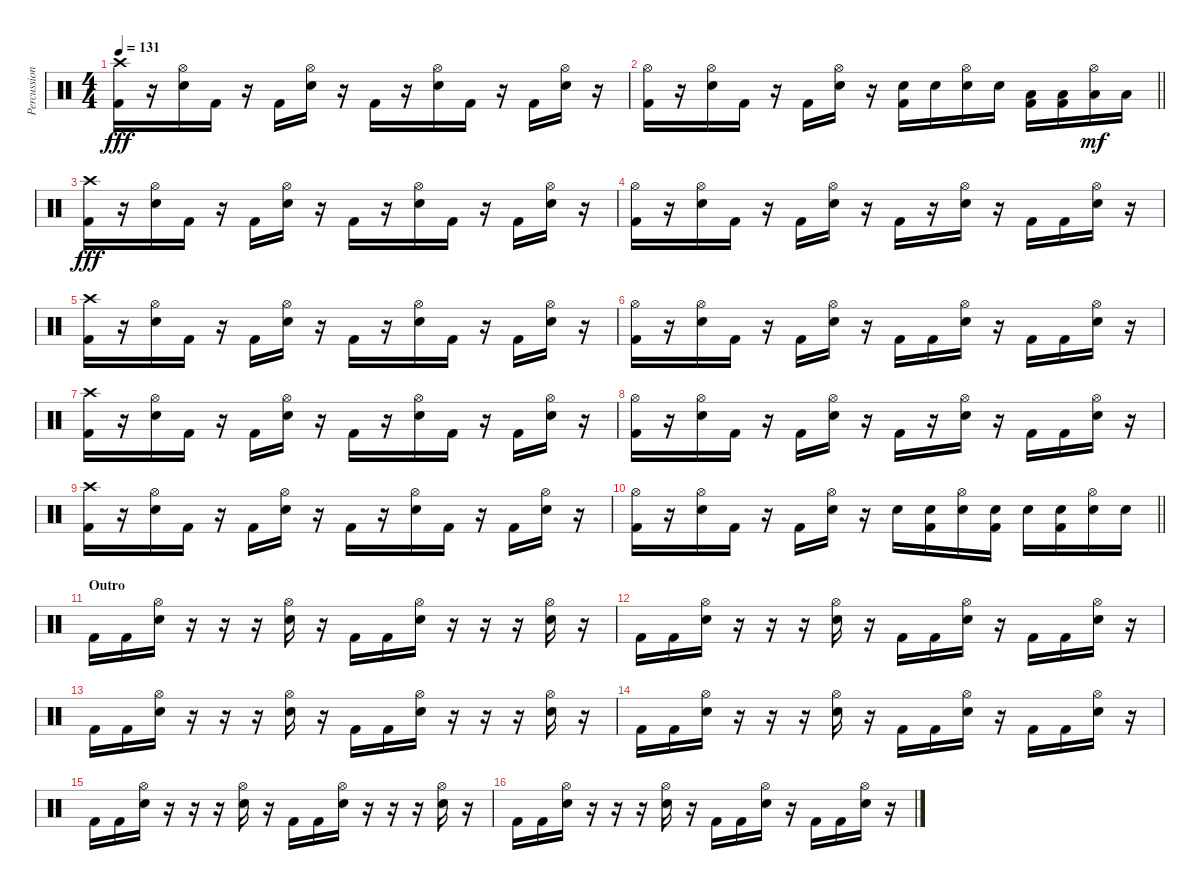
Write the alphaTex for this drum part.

\track ("Percussion" "Percussion") {instrument percussion}
\staff {score}
\articulation defaults
\ts (4 4)
\tempo 131
\clef neutral
\ks c
("Crash high (hit)" "Kick (hit) 2").16{dy fff} r.16 ("Hi-Hat (open)" "Snare (hit) 2").16 "Kick (hit) 2".16 r.16 "Kick (hit) 2".16 ("Hi-Hat (open)" "Snare (hit) 2").16 r.16 "Kick (hit) 2".16 r.16 ("Hi-Hat (open)" "Snare (hit) 2").16 "Kick (hit) 2".16 r.16 "Kick (hit) 2".16 ("Hi-Hat (open)" "Snare (hit) 2").16 r.16 |
\barLineRight lightlight
("Hi-Hat (open)" "Kick (hit) 2").16 r.16 ("Hi-Hat (open)" "Snare (hit) 2").16 "Kick (hit) 2".16 r.16 "Kick (hit) 2".16 ("Hi-Hat (open)" "Snare (hit) 2").16 r.16 ("Snare (hit) 2" "Kick (hit) 2").16 "Snare (hit) 2".16 ("Hi-Hat (open)" "Snare (hit) 2").16 "Snare (hit) 2".16 ("Low Tom (hit)" "Kick (hit) 2").16 ("Low Tom (hit)" "Kick (hit) 2").16 ("Hi-Hat (open)" "Low Tom (hit)").16{dy mf} "Low Tom (hit)".16 |
("Crash high (hit)" "Kick (hit) 2").16{dy fff} r.16 ("Hi-Hat (open)" "Snare (hit) 2").16 "Kick (hit) 2".16 r.16 "Kick (hit) 2".16 ("Hi-Hat (open)" "Snare (hit) 2").16 r.16 "Kick (hit) 2".16 r.16 ("Hi-Hat (open)" "Snare (hit) 2").16 "Kick (hit) 2".16 r.16 "Kick (hit) 2".16 ("Hi-Hat (open)" "Snare (hit) 2").16 r.16 |
("Hi-Hat (open)" "Kick (hit) 2").16 r.16 ("Hi-Hat (open)" "Snare (hit) 2").16 "Kick (hit) 2".16 r.16 "Kick (hit) 2".16 ("Hi-Hat (open)" "Snare (hit) 2").16 r.16 "Kick (hit) 2".16 r.16 ("Hi-Hat (open)" "Snare (hit) 2").16 r.16 "Kick (hit) 2".16 "Kick (hit) 2".16 ("Hi-Hat (open)" "Snare (hit) 2").16 r.16 |
("Crash high (hit)" "Kick (hit) 2").16 r.16 ("Hi-Hat (open)" "Snare (hit) 2").16 "Kick (hit) 2".16 r.16 "Kick (hit) 2".16 ("Hi-Hat (open)" "Snare (hit) 2").16 r.16 "Kick (hit) 2".16 r.16 ("Hi-Hat (open)" "Snare (hit) 2").16 "Kick (hit) 2".16 r.16 "Kick (hit) 2".16 ("Hi-Hat (open)" "Snare (hit) 2").16 r.16 |
("Hi-Hat (open)" "Kick (hit) 2").16 r.16 ("Hi-Hat (open)" "Snare (hit) 2").16 "Kick (hit) 2".16 r.16 "Kick (hit) 2".16 ("Hi-Hat (open)" "Snare (hit) 2").16 r.16 "Kick (hit) 2".16 "Kick (hit) 2".16 ("Hi-Hat (open)" "Snare (hit) 2").16 r.16 "Kick (hit) 2".16 "Kick (hit) 2".16 ("Hi-Hat (open)" "Snare (hit) 2").16 r.16 |
("Crash high (hit)" "Kick (hit) 2").16 r.16 ("Hi-Hat (open)" "Snare (hit) 2").16 "Kick (hit) 2".16 r.16 "Kick (hit) 2".16 ("Hi-Hat (open)" "Snare (hit) 2").16 r.16 "Kick (hit) 2".16 r.16 ("Hi-Hat (open)" "Snare (hit) 2").16 "Kick (hit) 2".16 r.16 "Kick (hit) 2".16 ("Hi-Hat (open)" "Snare (hit) 2").16 r.16 |
("Hi-Hat (open)" "Kick (hit) 2").16 r.16 ("Hi-Hat (open)" "Snare (hit) 2").16 "Kick (hit) 2".16 r.16 "Kick (hit) 2".16 ("Hi-Hat (open)" "Snare (hit) 2").16 r.16 "Kick (hit) 2".16 r.16 ("Hi-Hat (open)" "Snare (hit) 2").16 r.16 "Kick (hit) 2".16 "Kick (hit) 2".16 ("Hi-Hat (open)" "Snare (hit) 2").16 r.16 |
("Crash high (hit)" "Kick (hit) 2").16 r.16 ("Hi-Hat (open)" "Snare (hit) 2").16 "Kick (hit) 2".16 r.16 "Kick (hit) 2".16 ("Hi-Hat (open)" "Snare (hit) 2").16 r.16 "Kick (hit) 2".16 r.16 ("Hi-Hat (open)" "Snare (hit) 2").16 "Kick (hit) 2".16 r.16 "Kick (hit) 2".16 ("Hi-Hat (open)" "Snare (hit) 2").16 r.16 |
\barLineRight lightlight
("Hi-Hat (open)" "Kick (hit) 2").16 r.16 ("Hi-Hat (open)" "Snare (hit) 2").16 "Kick (hit) 2".16 r.16 "Kick (hit) 2".16 ("Hi-Hat (open)" "Snare (hit) 2").16 r.16 "Snare (hit) 2".16 ("Snare (hit) 2" "Kick (hit) 2").16 ("Hi-Hat (open)" "Snare (hit) 2").16 ("Snare (hit) 2" "Kick (hit) 2").16 "Snare (hit) 2".16 ("Snare (hit) 2" "Kick (hit) 2").16 ("Hi-Hat (open)" "Snare (hit) 2").16 "Snare (hit) 2".16 |
\section ("" "Outro")
"Kick (hit) 2".16 "Kick (hit) 2".16 ("Hi-Hat (open)" "Snare (hit) 2").16 r.16 r.16 r.16 ("Hi-Hat (open)" "Snare (hit) 2").16 r.16 "Kick (hit) 2".16 "Kick (hit) 2".16 ("Hi-Hat (open)" "Snare (hit) 2").16 r.16 r.16 r.16 ("Hi-Hat (open)" "Snare (hit) 2").16 r.16 |
"Kick (hit) 2".16 "Kick (hit) 2".16 ("Hi-Hat (open)" "Snare (hit) 2").16 r.16 r.16 r.16 ("Hi-Hat (open)" "Snare (hit) 2").16 r.16 "Kick (hit) 2".16 "Kick (hit) 2".16 ("Hi-Hat (open)" "Snare (hit) 2").16 r.16 "Kick (hit) 2".16 "Kick (hit) 2".16 ("Hi-Hat (open)" "Snare (hit) 2").16 r.16 |
"Kick (hit) 2".16 "Kick (hit) 2".16 ("Hi-Hat (open)" "Snare (hit) 2").16 r.16 r.16 r.16 ("Hi-Hat (open)" "Snare (hit) 2").16 r.16 "Kick (hit) 2".16 "Kick (hit) 2".16 ("Hi-Hat (open)" "Snare (hit) 2").16 r.16 r.16 r.16 ("Hi-Hat (open)" "Snare (hit) 2").16 r.16 |
"Kick (hit) 2".16 "Kick (hit) 2".16 ("Hi-Hat (open)" "Snare (hit) 2").16 r.16 r.16 r.16 ("Hi-Hat (open)" "Snare (hit) 2").16 r.16 "Kick (hit) 2".16 "Kick (hit) 2".16 ("Hi-Hat (open)" "Snare (hit) 2").16 r.16 "Kick (hit) 2".16 "Kick (hit) 2".16 ("Hi-Hat (open)" "Snare (hit) 2").16 r.16 |
"Kick (hit) 2".16 "Kick (hit) 2".16 ("Hi-Hat (open)" "Snare (hit) 2").16 r.16 r.16 r.16 ("Hi-Hat (open)" "Snare (hit) 2").16 r.16 "Kick (hit) 2".16 "Kick (hit) 2".16 ("Hi-Hat (open)" "Snare (hit) 2").16 r.16 r.16 r.16 ("Hi-Hat (open)" "Snare (hit) 2").16 r.16 |
"Kick (hit) 2".16 "Kick (hit) 2".16 ("Hi-Hat (open)" "Snare (hit) 2").16 r.16 r.16 r.16 ("Hi-Hat (open)" "Snare (hit) 2").16 r.16 "Kick (hit) 2".16 "Kick (hit) 2".16 ("Hi-Hat (open)" "Snare (hit) 2").16 r.16 "Kick (hit) 2".16 "Kick (hit) 2".16 ("Hi-Hat (open)" "Snare (hit) 2").16 r.16
